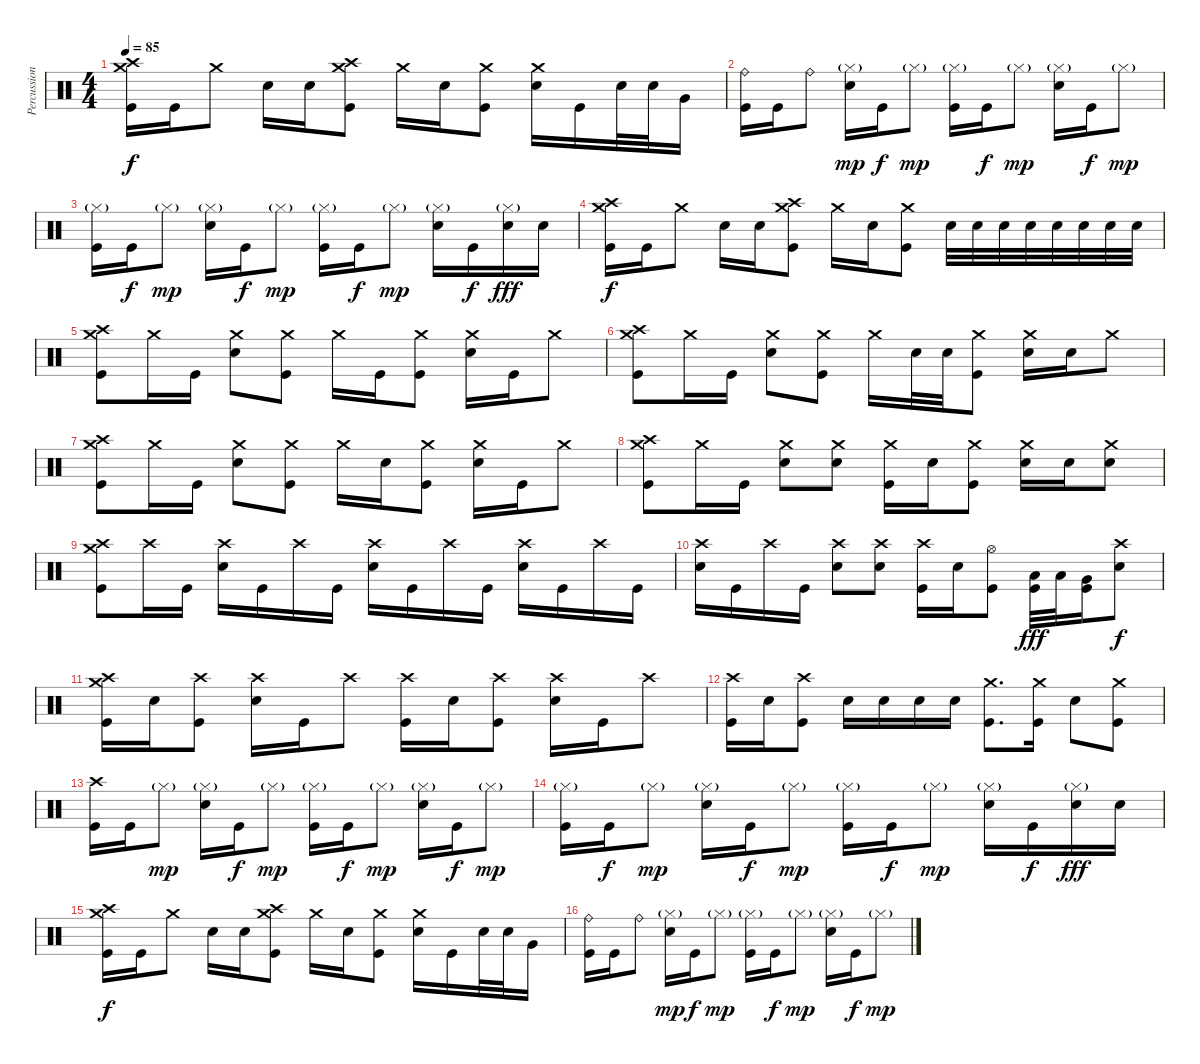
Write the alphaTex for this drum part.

\track ("Percussion" "Percussion") {instrument percussion}
\staff {score}
\articulation defaults
\ts (4 4)
\tempo 85
\clef neutral
\ks c
("Crash high (hit)" "Crash medium (hit)" "Kick (hit)").16{dy f} "Kick (hit)".16 "Crash medium (hit)".8 "Snare (hit) 2".16 "Snare (hit) 2".16 ("Crash high (hit)" "Crash medium (hit)" "Kick (hit)").8 "Crash medium (hit)".16 "Snare (hit) 2".16 ("Crash medium (hit)" "Kick (hit)").8 ("Crash medium (hit)" "Snare (hit) 2").16 "Kick (hit)".16 "Snare (hit) 2".32 "Snare (hit) 2".32 "Very Low Tom (hit)".16 |
("Ride (bell)" "Kick (hit)").16{balance 2} "Kick (hit)".16 "Ride (bell)".8{balance 14} ("Hi-Hat (closed)"{g} "Snare (hit) 2").16{dy mp balance 8} "Kick (hit)".16{dy f} "Hi-Hat (closed)"{g}.8{dy mp} ("Hi-Hat (closed)"{g} "Kick (hit)").16 "Kick (hit)".16{dy f} "Hi-Hat (closed)"{g}.8{dy mp} ("Hi-Hat (closed)"{g} "Snare (hit) 2").16 "Kick (hit)".16{dy f} "Hi-Hat (closed)"{g}.8{dy mp} |
("Hi-Hat (closed)"{g} "Kick (hit)").16 "Kick (hit)".16{dy f} "Hi-Hat (closed)"{g}.8{dy mp} ("Hi-Hat (closed)"{g} "Snare (hit) 2").16 "Kick (hit)".16{dy f} "Hi-Hat (closed)"{g}.8{dy mp} ("Hi-Hat (closed)"{g} "Kick (hit)").16 "Kick (hit)".16{dy f} "Hi-Hat (closed)"{g}.8{dy mp} ("Hi-Hat (closed)"{g} "Snare (hit) 2").16 "Kick (hit)".16{dy f} ("Hi-Hat (closed)"{g} "Snare (hit) 2").16{dy fff} "Snare (hit) 2".16 |
("Crash high (hit)" "Crash medium (hit)" "Kick (hit)").16{dy f} "Kick (hit)".16 "Crash medium (hit)".8 "Snare (hit) 2".16 "Snare (hit) 2".16 ("Crash high (hit)" "Crash medium (hit)" "Kick (hit)").8 "Crash medium (hit)".16 "Snare (hit) 2".16 ("Crash medium (hit)" "Kick (hit)").8 "Snare (hit) 2".32 "Snare (hit) 2".32 "Snare (hit) 2".32 "Snare (hit) 2".32 "Snare (hit) 2".32 "Snare (hit) 2".32 "Snare (hit) 2".32 "Snare (hit) 2".32 |
("Crash high (hit)" "Crash medium (hit)" "Kick (hit)").8 "Crash medium (hit)".16 "Kick (hit)".16 ("Crash medium (hit)" "Snare (hit) 2").8 ("Crash medium (hit)" "Kick (hit)").8 "Crash medium (hit)".16 "Kick (hit)".16 ("Crash medium (hit)" "Kick (hit)").8 ("Crash medium (hit)" "Snare (hit) 2").16 "Kick (hit)".16 "Crash medium (hit)".8 |
("Crash high (hit)" "Crash medium (hit)" "Kick (hit)").8 "Crash medium (hit)".16 "Kick (hit)".16 ("Crash medium (hit)" "Snare (hit) 2").8 ("Crash medium (hit)" "Kick (hit)").8 "Crash medium (hit)".16 "Snare (hit) 2".32 "Snare (hit) 2".32 ("Crash medium (hit)" "Kick (hit)").8 ("Crash medium (hit)" "Snare (hit) 2").16 "Snare (hit) 2".16 "Crash medium (hit)".8 |
("Crash high (hit)" "Crash medium (hit)" "Kick (hit)").8 "Crash medium (hit)".16 "Kick (hit)".16 ("Crash medium (hit)" "Snare (hit) 2").8 ("Crash medium (hit)" "Kick (hit)").8 "Crash medium (hit)".16 "Snare (hit) 2".16 ("Crash medium (hit)" "Kick (hit)").8 ("Crash medium (hit)" "Snare (hit) 2").16 "Kick (hit)".16 "Crash medium (hit)".8 |
("Crash high (hit)" "Crash medium (hit)" "Kick (hit)").8 "Crash medium (hit)".16 "Kick (hit)".16 ("Crash medium (hit)" "Snare (hit) 2").8 ("Crash medium (hit)" "Snare (hit) 2").8 ("Crash medium (hit)" "Kick (hit)").16 "Snare (hit) 2".16 ("Crash medium (hit)" "Kick (hit)").8 ("Crash medium (hit)" "Snare (hit) 2").16 "Snare (hit) 2".16 ("Crash medium (hit)" "Snare (hit) 2").8 |
("Crash high (hit)" "Crash medium (hit)" "Kick (hit)").8 "Crash high (hit)".16 "Kick (hit)".16 ("Crash high (hit)" "Snare (hit) 2").16 "Kick (hit)".16 "Crash high (hit)".16 "Kick (hit)".16 ("Crash high (hit)" "Snare (hit) 2").16 "Kick (hit)".16 "Crash high (hit)".16 "Kick (hit)".16 ("Crash high (hit)" "Snare (hit) 2").16 "Kick (hit)".16 "Crash high (hit)".16 "Kick (hit)".16 |
("Crash high (hit)" "Snare (hit) 2").16 "Kick (hit)".16 "Crash high (hit)".16 "Kick (hit)".16 ("Crash high (hit)" "Snare (hit) 2").8 ("Crash high (hit)" "Snare (hit) 2").8 ("Crash high (hit)" "Kick (hit)").16 "Snare (hit) 2".16 ("Hi-Hat (open)" "Kick (hit)").8 ("Low Tom (hit)" "Kick (hit)").32{dy fff} "Low Tom (hit)".32 ("Very Low Tom (hit)" "Kick (hit)").16 ("Crash high (hit)" "Snare (hit) 2").8{dy f} |
("Crash high (hit)" "Crash medium (hit)" "Kick (hit)").16 "Snare (hit) 2".16 ("Crash high (hit)" "Kick (hit)").8 ("Crash high (hit)" "Snare (hit) 2").16 "Kick (hit)".16 "Crash high (hit)".8 ("Crash high (hit)" "Kick (hit)").16 "Snare (hit) 2".16 ("Crash high (hit)" "Kick (hit)").8 ("Crash high (hit)" "Snare (hit) 2").16 "Kick (hit)".16 "Crash high (hit)".8 |
("Crash high (hit)" "Kick (hit)").16 "Snare (hit) 2".16 ("Crash high (hit)" "Kick (hit)").8 "Snare (hit) 2".16 "Snare (hit) 2".16 "Snare (hit) 2".16 "Snare (hit) 2".16 ("Crash medium (hit)" "Kick (hit)").8{d} ("Crash medium (hit)" "Kick (hit)").16 "Snare (hit) 2".8 ("Crash medium (hit)" "Kick (hit)").8 |
("Crash high (hit)" "Kick (hit)").16 "Kick (hit)".16 "Hi-Hat (closed)"{g}.8{dy mp} ("Hi-Hat (closed)"{g} "Snare (hit) 2").16 "Kick (hit)".16{dy f} "Hi-Hat (closed)"{g}.8{dy mp} ("Hi-Hat (closed)"{g} "Kick (hit)").16 "Kick (hit)".16{dy f} "Hi-Hat (closed)"{g}.8{dy mp} ("Hi-Hat (closed)"{g} "Snare (hit) 2").16 "Kick (hit)".16{dy f} "Hi-Hat (closed)"{g}.8{dy mp} |
("Hi-Hat (closed)"{g} "Kick (hit)").16 "Kick (hit)".16{dy f} "Hi-Hat (closed)"{g}.8{dy mp} ("Hi-Hat (closed)"{g} "Snare (hit) 2").16 "Kick (hit)".16{dy f} "Hi-Hat (closed)"{g}.8{dy mp} ("Hi-Hat (closed)"{g} "Kick (hit)").16 "Kick (hit)".16{dy f} "Hi-Hat (closed)"{g}.8{dy mp} ("Hi-Hat (closed)"{g} "Snare (hit) 2").16 "Kick (hit)".16{dy f} ("Hi-Hat (closed)"{g} "Snare (hit) 2").16{dy fff} "Snare (hit) 2".16 |
("Crash high (hit)" "Crash medium (hit)" "Kick (hit)").16{dy f} "Kick (hit)".16 "Crash medium (hit)".8 "Snare (hit) 2".16 "Snare (hit) 2".16 ("Crash high (hit)" "Crash medium (hit)" "Kick (hit)").8 "Crash medium (hit)".16 "Snare (hit) 2".16 ("Crash medium (hit)" "Kick (hit)").8 ("Crash medium (hit)" "Snare (hit) 2").16 "Kick (hit)".16 "Snare (hit) 2".32 "Snare (hit) 2".32 "Very Low Tom (hit)".16 |
("Ride (bell)" "Kick (hit)").16{balance 2} "Kick (hit)".16 "Ride (bell)".8{balance 14} ("Hi-Hat (closed)"{g} "Snare (hit) 2").16{dy mp balance 8} "Kick (hit)".16{dy f} "Hi-Hat (closed)"{g}.8{dy mp} ("Hi-Hat (closed)"{g} "Kick (hit)").16 "Kick (hit)".16{dy f} "Hi-Hat (closed)"{g}.8{dy mp} ("Hi-Hat (closed)"{g} "Snare (hit) 2").16 "Kick (hit)".16{dy f} "Hi-Hat (closed)"{g}.8{dy mp}
